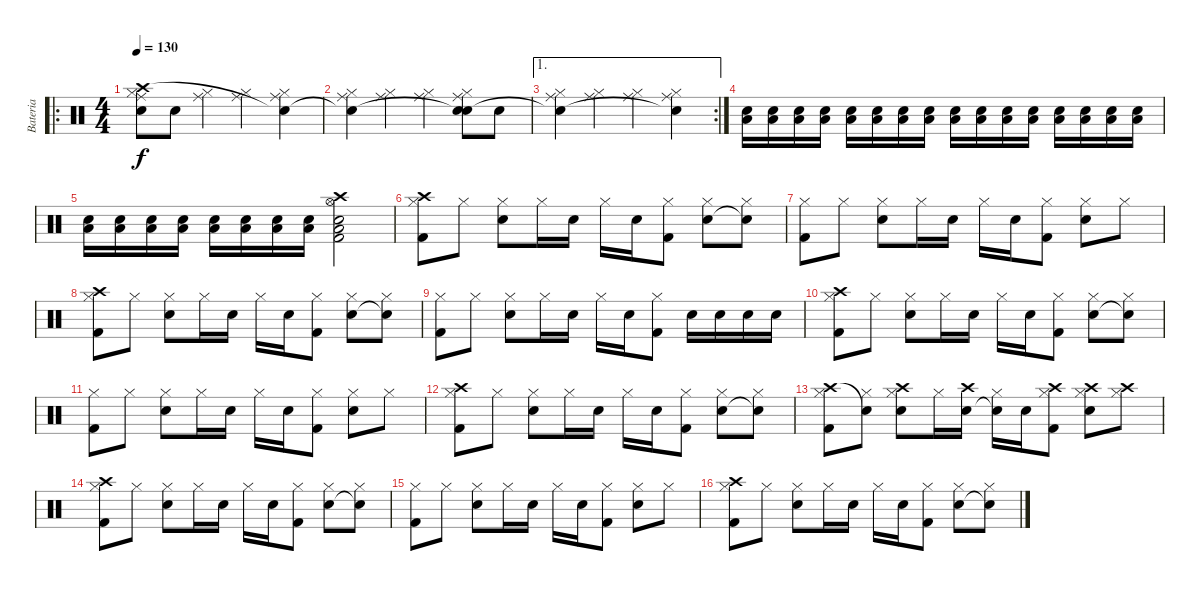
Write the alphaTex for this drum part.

\track ("Bateria" "Bateria") {instrument percussion}
\staff {score}
\articulation defaults
\ro
\ts (4 4)
\tempo 130
\clef neutral
\ks c
("Hi-Hat (closed)" "Ride (middle)" "Crash high (hit)" "Snare (hit) 2").8{dy f} "Snare (hit) 2".8 ("Hi-Hat (closed)" "Ride (middle)").4 ("Hi-Hat (closed)" "Ride (middle)").4 ("Hi-Hat (closed)" "Ride (middle)" "Snare (hit)"{t}).4 |
("Hi-Hat (closed)" "Ride (middle)" "Snare (hit)"{t}).4 ("Hi-Hat (closed)" "Ride (middle)").4 ("Hi-Hat (closed)" "Ride (middle)").4 ("Hi-Hat (closed)" "Ride (middle)" "Snare (hit)"{t} "Snare (hit) 2").8 "Snare (hit) 2".8 |
\ae 1
\rc 2
("Hi-Hat (closed)" "Ride (middle)" "Snare (hit)"{t}).4 ("Hi-Hat (closed)" "Ride (middle)").4 ("Hi-Hat (closed)" "Ride (middle)").4 ("Hi-Hat (closed)" "Ride (middle)" "Snare (hit)"{t}).4 |
("Low Floor Tom (hit)" "Snare (hit) 2").16{volume 4} ("Low Floor Tom (hit)" "Snare (hit) 2").16 ("Low Floor Tom (hit)" "Snare (hit) 2").16{volume 5} ("Low Floor Tom (hit)" "Snare (hit) 2").16 ("Low Floor Tom (hit)" "Snare (hit) 2").16{volume 6} ("Low Floor Tom (hit)" "Snare (hit) 2").16 ("Low Floor Tom (hit)" "Snare (hit) 2").16{volume 7} ("Low Floor Tom (hit)" "Snare (hit) 2").16 ("Low Floor Tom (hit)" "Snare (hit) 2").16{volume 8} ("Low Floor Tom (hit)" "Snare (hit) 2").16 ("Low Floor Tom (hit)" "Snare (hit) 2").16{volume 9} ("Low Floor Tom (hit)" "Snare (hit) 2").16 ("Low Floor Tom (hit)" "Snare (hit) 2").16{volume 10} ("Low Floor Tom (hit)" "Snare (hit) 2").16 ("Low Floor Tom (hit)" "Snare (hit) 2").16{volume 11} ("Low Floor Tom (hit)" "Snare (hit) 2").16 |
("Low Floor Tom (hit)" "Snare (hit) 2").16{volume 12} ("Low Floor Tom (hit)" "Snare (hit) 2").16 ("Low Floor Tom (hit)" "Snare (hit) 2").16{volume 13} ("Low Floor Tom (hit)" "Snare (hit) 2").16 ("Low Floor Tom (hit)" "Snare (hit) 2").16{volume 14} ("Low Floor Tom (hit)" "Snare (hit) 2").16 ("Low Floor Tom (hit)" "Snare (hit) 2").16 ("Low Floor Tom (hit)" "Snare (hit) 2").16 ("Hi-Hat (open)" "Crash high (hit)" "Low Floor Tom (hit)" "Snare (hit) 2" "Kick (hit) 2").2 |
("Hi-Hat (closed)" "Crash high (hit)" "Kick (hit) 2").8 "Hi-Hat (closed)".8 ("Hi-Hat (closed)" "Snare (hit) 2").8 "Hi-Hat (closed)".16 "Snare (hit) 2".16 "Hi-Hat (closed)".16 "Snare (hit) 2".16 ("Hi-Hat (closed)" "Kick (hit) 2").8 ("Hi-Hat (closed)" "Snare (hit) 2").8 ("Hi-Hat (closed)" "Snare (hit)"{t}).8 |
("Hi-Hat (closed)" "Kick (hit) 2").8 "Hi-Hat (closed)".8 ("Hi-Hat (closed)" "Snare (hit) 2").8 "Hi-Hat (closed)".16 "Snare (hit) 2".16 "Hi-Hat (closed)".16 "Snare (hit) 2".16 ("Hi-Hat (closed)" "Kick (hit) 2").8 ("Hi-Hat (closed)" "Snare (hit) 2").8 "Hi-Hat (closed)".8 |
("Hi-Hat (closed)" "Crash high (hit)" "Kick (hit) 2").8 "Hi-Hat (closed)".8 ("Hi-Hat (closed)" "Snare (hit) 2").8 "Hi-Hat (closed)".16 "Snare (hit) 2".16 "Hi-Hat (closed)".16 "Snare (hit) 2".16 ("Hi-Hat (closed)" "Kick (hit) 2").8 ("Hi-Hat (closed)" "Snare (hit) 2").8 ("Hi-Hat (closed)" "Snare (hit)"{t}).8 |
("Hi-Hat (closed)" "Kick (hit) 2").8 "Hi-Hat (closed)".8 ("Hi-Hat (closed)" "Snare (hit) 2").8 "Hi-Hat (closed)".16 "Snare (hit) 2".16 "Hi-Hat (closed)".16 "Snare (hit) 2".16 ("Hi-Hat (closed)" "Kick (hit) 2").8 "Snare (hit) 2".16 "Snare (hit) 2".16 "Snare (hit) 2".16 "Snare (hit) 2".16 |
("Hi-Hat (closed)" "Crash high (hit)" "Kick (hit) 2").8 "Hi-Hat (closed)".8 ("Hi-Hat (closed)" "Snare (hit) 2").8 "Hi-Hat (closed)".16 "Snare (hit) 2".16 "Hi-Hat (closed)".16 "Snare (hit) 2".16 ("Hi-Hat (closed)" "Kick (hit) 2").8 ("Hi-Hat (closed)" "Snare (hit) 2").8 ("Hi-Hat (closed)" "Snare (hit)"{t}).8 |
("Hi-Hat (closed)" "Kick (hit) 2").8 "Hi-Hat (closed)".8 ("Hi-Hat (closed)" "Snare (hit) 2").8 "Hi-Hat (closed)".16 "Snare (hit) 2".16 "Hi-Hat (closed)".16 "Snare (hit) 2".16 ("Hi-Hat (closed)" "Kick (hit) 2").8 ("Hi-Hat (closed)" "Snare (hit) 2").8 "Hi-Hat (closed)".8 |
("Hi-Hat (closed)" "Crash high (hit)" "Kick (hit) 2").8 "Hi-Hat (closed)".8 ("Hi-Hat (closed)" "Snare (hit) 2").8 "Hi-Hat (closed)".16 "Snare (hit) 2".16 "Hi-Hat (closed)".16 "Snare (hit) 2".16 ("Hi-Hat (closed)" "Kick (hit) 2").8 ("Hi-Hat (closed)" "Snare (hit) 2").8 ("Hi-Hat (closed)" "Snare (hit)"{t}).8 |
("Hi-Hat (closed)" "Crash high (hit)" "Kick (hit) 2").8 ("Hi-Hat (closed)" "Snare (hit)"{t}).8 ("Hi-Hat (closed)" "Crash high (hit)" "Snare (hit) 2").8 "Hi-Hat (closed)".16 ("Crash high (hit)" "Snare (hit) 2").16 ("Hi-Hat (closed)" "Snare (hit)"{t}).16 "Snare (hit) 2".16 ("Hi-Hat (closed)" "Crash high (hit)" "Kick (hit) 2").8 ("Hi-Hat (closed)" "Crash high (hit)" "Snare (hit) 2").8 ("Hi-Hat (closed)" "Crash high (hit)").8 |
("Hi-Hat (closed)" "Crash high (hit)" "Kick (hit) 2").8 "Hi-Hat (closed)".8 ("Hi-Hat (closed)" "Snare (hit) 2").8 "Hi-Hat (closed)".16 "Snare (hit) 2".16 "Hi-Hat (closed)".16 "Snare (hit) 2".16 ("Hi-Hat (closed)" "Kick (hit) 2").8 ("Hi-Hat (closed)" "Snare (hit) 2").8 ("Hi-Hat (closed)" "Snare (hit)"{t}).8 |
("Hi-Hat (closed)" "Kick (hit) 2").8 "Hi-Hat (closed)".8 ("Hi-Hat (closed)" "Snare (hit) 2").8 "Hi-Hat (closed)".16 "Snare (hit) 2".16 "Hi-Hat (closed)".16 "Snare (hit) 2".16 ("Hi-Hat (closed)" "Kick (hit) 2").8 ("Hi-Hat (closed)" "Snare (hit) 2").8 "Hi-Hat (closed)".8 |
("Hi-Hat (closed)" "Crash high (hit)" "Kick (hit) 2").8 "Hi-Hat (closed)".8 ("Hi-Hat (closed)" "Snare (hit) 2").8 "Hi-Hat (closed)".16 "Snare (hit) 2".16 "Hi-Hat (closed)".16 "Snare (hit) 2".16 ("Hi-Hat (closed)" "Kick (hit) 2").8 ("Hi-Hat (closed)" "Snare (hit) 2").8 ("Hi-Hat (closed)" "Snare (hit)"{t}).8
